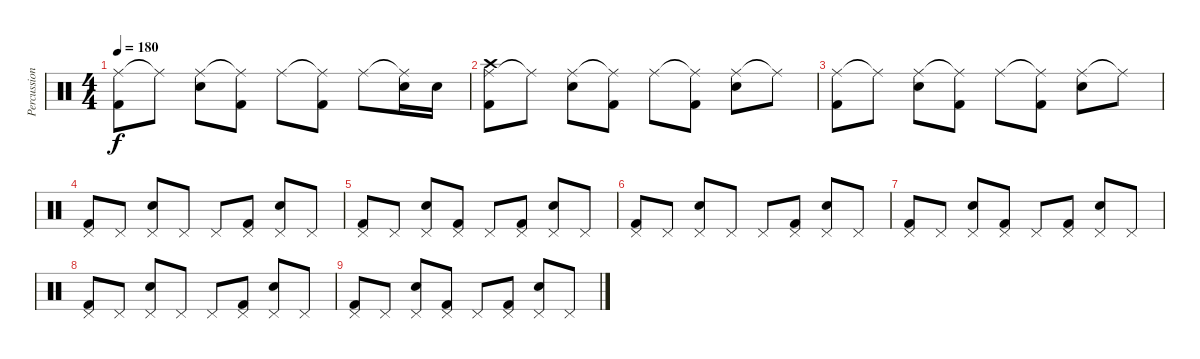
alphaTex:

\track ("Percussions" "Percussion") {instrument percussion}
\staff {score}
\articulation defaults
\ts (4 4)
\tempo 180
\clef neutral
\ks c
("Ride (middle)" "Kick (hit) 2").8{dy f} "Ride (middle)"{t}.8 ("Ride (middle)" "Electric Snare (hit)").8 ("Ride (middle)"{t} "Kick (hit) 2").8 "Ride (middle)".8 ("Ride (middle)"{t} "Kick (hit) 2").8 "Ride (middle)".8 ("Ride (middle)"{t} "Electric Snare (hit)").16 "Electric Snare (hit)".16 |
("Ride (middle)" "Crash high (hit)" "Kick (hit) 2").8 "Ride (middle)"{t}.8 ("Ride (middle)" "Electric Snare (hit)").8 ("Ride (middle)"{t} "Kick (hit) 2").8 "Ride (middle)".8 ("Ride (middle)"{t} "Kick (hit) 2").8 ("Ride (middle)" "Electric Snare (hit)").8 "Ride (middle)"{t}.8 |
("Ride (middle)" "Kick (hit) 2").8 "Ride (middle)"{t}.8 ("Ride (middle)" "Electric Snare (hit)").8 ("Ride (middle)"{t} "Kick (hit) 2").8 "Ride (middle)".8 ("Ride (middle)"{t} "Kick (hit) 2").8 ("Ride (middle)" "Electric Snare (hit)").8 "Ride (middle)"{t}.8 |
("Pedal Hi-Hat (hit)" "Kick (hit) 2").8 "Pedal Hi-Hat (hit)".8 ("Pedal Hi-Hat (hit)" "Electric Snare (hit)").8 "Pedal Hi-Hat (hit)".8 "Pedal Hi-Hat (hit)".8 ("Pedal Hi-Hat (hit)" "Kick (hit) 2").8 ("Pedal Hi-Hat (hit)" "Electric Snare (hit)").8 "Pedal Hi-Hat (hit)".8 |
("Pedal Hi-Hat (hit)" "Kick (hit) 2").8 "Pedal Hi-Hat (hit)".8 ("Pedal Hi-Hat (hit)" "Electric Snare (hit)").8 ("Pedal Hi-Hat (hit)" "Kick (hit) 2").8 "Pedal Hi-Hat (hit)".8 ("Pedal Hi-Hat (hit)" "Kick (hit) 2").8 ("Pedal Hi-Hat (hit)" "Electric Snare (hit)").8 "Pedal Hi-Hat (hit)".8 |
("Pedal Hi-Hat (hit)" "Kick (hit) 2").8 "Pedal Hi-Hat (hit)".8 ("Pedal Hi-Hat (hit)" "Electric Snare (hit)").8 "Pedal Hi-Hat (hit)".8 "Pedal Hi-Hat (hit)".8 ("Pedal Hi-Hat (hit)" "Kick (hit) 2").8 ("Pedal Hi-Hat (hit)" "Electric Snare (hit)").8 "Pedal Hi-Hat (hit)".8 |
("Pedal Hi-Hat (hit)" "Kick (hit) 2").8 "Pedal Hi-Hat (hit)".8 ("Pedal Hi-Hat (hit)" "Electric Snare (hit)").8 ("Pedal Hi-Hat (hit)" "Kick (hit) 2").8 "Pedal Hi-Hat (hit)".8 ("Pedal Hi-Hat (hit)" "Kick (hit) 2").8 ("Pedal Hi-Hat (hit)" "Electric Snare (hit)").8 "Pedal Hi-Hat (hit)".8 |
("Pedal Hi-Hat (hit)" "Kick (hit) 2").8 "Pedal Hi-Hat (hit)".8 ("Pedal Hi-Hat (hit)" "Electric Snare (hit)").8 "Pedal Hi-Hat (hit)".8 "Pedal Hi-Hat (hit)".8 ("Pedal Hi-Hat (hit)" "Kick (hit) 2").8 ("Pedal Hi-Hat (hit)" "Electric Snare (hit)").8 "Pedal Hi-Hat (hit)".8 |
("Pedal Hi-Hat (hit)" "Kick (hit) 2").8 "Pedal Hi-Hat (hit)".8 ("Pedal Hi-Hat (hit)" "Electric Snare (hit)").8 ("Pedal Hi-Hat (hit)" "Kick (hit) 2").8 "Pedal Hi-Hat (hit)".8 ("Pedal Hi-Hat (hit)" "Kick (hit) 2").8 ("Pedal Hi-Hat (hit)" "Electric Snare (hit)").8 "Pedal Hi-Hat (hit)".8
